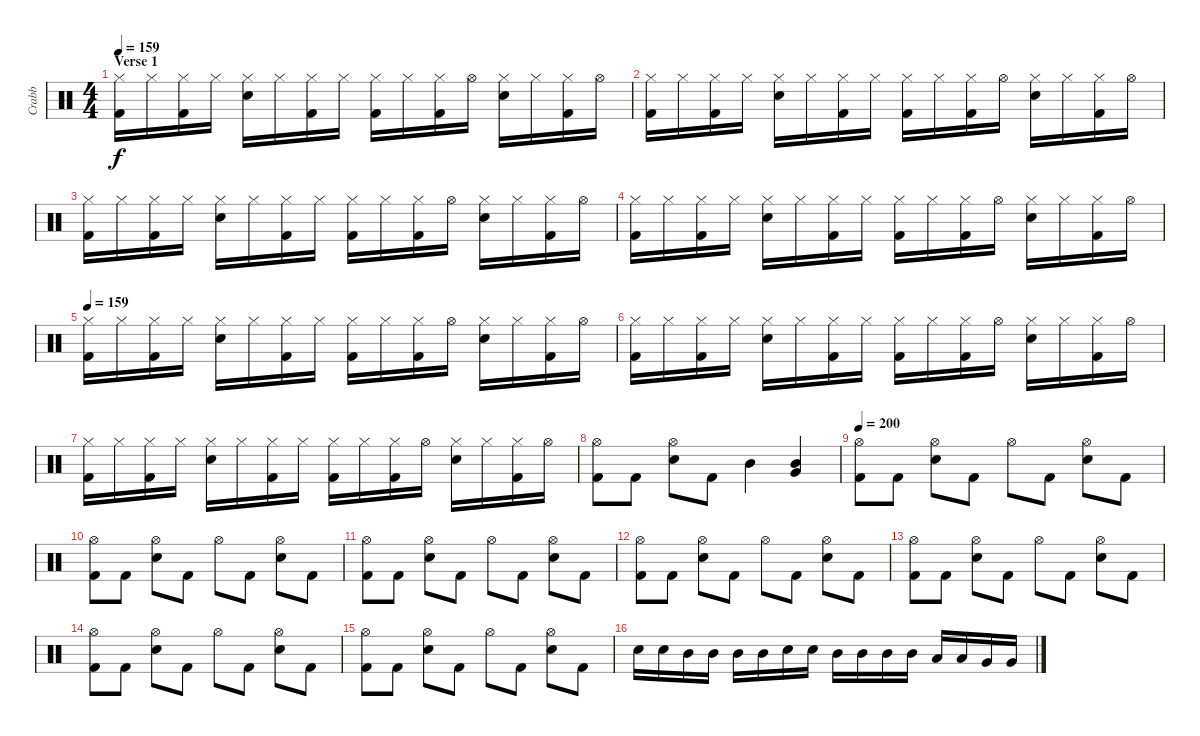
\track ("Crabb" "Crabb") {instrument percussion}
\staff {score}
\articulation defaults
\ts (4 4)
\section ("" "Verse 1")
\tempo 159
\clef neutral
\ks c
("Hi-Hat (closed)" "Kick (hit) 2").16{dy f} "Hi-Hat (closed)".16 ("Hi-Hat (closed)" "Kick (hit) 2").16 "Hi-Hat (closed)".16 ("Hi-Hat (closed)" "Electric Snare (hit)").16 "Hi-Hat (closed)".16 ("Hi-Hat (closed)" "Kick (hit) 2").16 "Hi-Hat (closed)".16 ("Hi-Hat (closed)" "Kick (hit) 2").16 "Hi-Hat (closed)".16 ("Hi-Hat (closed)" "Kick (hit) 2").16 "Hi-Hat (open)".16 ("Hi-Hat (closed)" "Electric Snare (hit)").16 "Hi-Hat (closed)".16 ("Hi-Hat (closed)" "Kick (hit) 2").16 "Hi-Hat (open)".16 |
("Hi-Hat (closed)" "Kick (hit) 2").16 "Hi-Hat (closed)".16 ("Hi-Hat (closed)" "Kick (hit) 2").16 "Hi-Hat (closed)".16 ("Hi-Hat (closed)" "Electric Snare (hit)").16 "Hi-Hat (closed)".16 ("Hi-Hat (closed)" "Kick (hit) 2").16 "Hi-Hat (closed)".16 ("Hi-Hat (closed)" "Kick (hit) 2").16 "Hi-Hat (closed)".16 ("Hi-Hat (closed)" "Kick (hit) 2").16 "Hi-Hat (open)".16 ("Hi-Hat (closed)" "Electric Snare (hit)").16 "Hi-Hat (closed)".16 ("Hi-Hat (closed)" "Kick (hit) 2").16 "Hi-Hat (open)".16 |
("Hi-Hat (closed)" "Kick (hit) 2").16 "Hi-Hat (closed)".16 ("Hi-Hat (closed)" "Kick (hit) 2").16 "Hi-Hat (closed)".16 ("Hi-Hat (closed)" "Electric Snare (hit)").16 "Hi-Hat (closed)".16 ("Hi-Hat (closed)" "Kick (hit) 2").16 "Hi-Hat (closed)".16 ("Hi-Hat (closed)" "Kick (hit) 2").16 "Hi-Hat (closed)".16 ("Hi-Hat (closed)" "Kick (hit) 2").16 "Hi-Hat (open)".16 ("Hi-Hat (closed)" "Electric Snare (hit)").16 "Hi-Hat (closed)".16 ("Hi-Hat (closed)" "Kick (hit) 2").16 "Hi-Hat (open)".16 |
("Hi-Hat (closed)" "Kick (hit) 2").16 "Hi-Hat (closed)".16 ("Hi-Hat (closed)" "Kick (hit) 2").16 "Hi-Hat (closed)".16 ("Hi-Hat (closed)" "Electric Snare (hit)").16 "Hi-Hat (closed)".16 ("Hi-Hat (closed)" "Kick (hit) 2").16 "Hi-Hat (closed)".16 ("Hi-Hat (closed)" "Kick (hit) 2").16 "Hi-Hat (closed)".16 ("Hi-Hat (closed)" "Kick (hit) 2").16 "Hi-Hat (open)".16 ("Hi-Hat (closed)" "Electric Snare (hit)").16 "Hi-Hat (closed)".16 ("Hi-Hat (closed)" "Kick (hit) 2").16 "Hi-Hat (open)".16 |
\tempo 159
("Hi-Hat (closed)" "Kick (hit) 2").16 "Hi-Hat (closed)".16 ("Hi-Hat (closed)" "Kick (hit) 2").16 "Hi-Hat (closed)".16 ("Hi-Hat (closed)" "Electric Snare (hit)").16 "Hi-Hat (closed)".16 ("Hi-Hat (closed)" "Kick (hit) 2").16 "Hi-Hat (closed)".16 ("Hi-Hat (closed)" "Kick (hit) 2").16 "Hi-Hat (closed)".16 ("Hi-Hat (closed)" "Kick (hit) 2").16 "Hi-Hat (open)".16 ("Hi-Hat (closed)" "Electric Snare (hit)").16 "Hi-Hat (closed)".16 ("Hi-Hat (closed)" "Kick (hit) 2").16 "Hi-Hat (open)".16 |
("Hi-Hat (closed)" "Kick (hit) 2").16 "Hi-Hat (closed)".16 ("Hi-Hat (closed)" "Kick (hit) 2").16 "Hi-Hat (closed)".16 ("Hi-Hat (closed)" "Electric Snare (hit)").16 "Hi-Hat (closed)".16 ("Hi-Hat (closed)" "Kick (hit) 2").16 "Hi-Hat (closed)".16 ("Hi-Hat (closed)" "Kick (hit) 2").16 "Hi-Hat (closed)".16 ("Hi-Hat (closed)" "Kick (hit) 2").16 "Hi-Hat (open)".16 ("Hi-Hat (closed)" "Electric Snare (hit)").16 "Hi-Hat (closed)".16 ("Hi-Hat (closed)" "Kick (hit) 2").16 "Hi-Hat (open)".16 |
("Hi-Hat (closed)" "Kick (hit) 2").16 "Hi-Hat (closed)".16 ("Hi-Hat (closed)" "Kick (hit) 2").16 "Hi-Hat (closed)".16 ("Hi-Hat (closed)" "Electric Snare (hit)").16 "Hi-Hat (closed)".16 ("Hi-Hat (closed)" "Kick (hit) 2").16 "Hi-Hat (closed)".16 ("Hi-Hat (closed)" "Kick (hit) 2").16 "Hi-Hat (closed)".16 ("Hi-Hat (closed)" "Kick (hit) 2").16 "Hi-Hat (open)".16 ("Hi-Hat (closed)" "Electric Snare (hit)").16 "Hi-Hat (closed)".16 ("Hi-Hat (closed)" "Kick (hit) 2").16 "Hi-Hat (open)".16 |
("Hi-Hat (open)" "Kick (hit) 2").8 "Kick (hit) 2".8 ("Hi-Hat (open)" "Electric Snare (hit)").8 "Kick (hit) 2".8 "Mid Tom (hit)".4 ("Mid Tom (hit)" "Very Low Tom (hit)").4 |
\tempo 200
("Hi-Hat (open)" "Kick (hit) 2").8 "Kick (hit) 2".8 ("Hi-Hat (open)" "Electric Snare (hit)").8 "Kick (hit) 2".8 "Hi-Hat (open)".8 "Kick (hit) 2".8 ("Hi-Hat (open)" "Electric Snare (hit)").8 "Kick (hit) 2".8 |
("Hi-Hat (open)" "Kick (hit) 2").8 "Kick (hit) 2".8 ("Hi-Hat (open)" "Electric Snare (hit)").8 "Kick (hit) 2".8 "Hi-Hat (open)".8 "Kick (hit) 2".8 ("Hi-Hat (open)" "Electric Snare (hit)").8 "Kick (hit) 2".8 |
("Hi-Hat (open)" "Kick (hit) 2").8 "Kick (hit) 2".8 ("Hi-Hat (open)" "Electric Snare (hit)").8 "Kick (hit) 2".8 "Hi-Hat (open)".8 "Kick (hit) 2".8 ("Hi-Hat (open)" "Electric Snare (hit)").8 "Kick (hit) 2".8 |
("Hi-Hat (open)" "Kick (hit) 2").8 "Kick (hit) 2".8 ("Hi-Hat (open)" "Electric Snare (hit)").8 "Kick (hit) 2".8 "Hi-Hat (open)".8 "Kick (hit) 2".8 ("Hi-Hat (open)" "Electric Snare (hit)").8 "Kick (hit) 2".8 |
("Hi-Hat (open)" "Kick (hit) 2").8 "Kick (hit) 2".8 ("Hi-Hat (open)" "Electric Snare (hit)").8 "Kick (hit) 2".8 "Hi-Hat (open)".8 "Kick (hit) 2".8 ("Hi-Hat (open)" "Electric Snare (hit)").8 "Kick (hit) 2".8 |
("Hi-Hat (open)" "Kick (hit) 2").8 "Kick (hit) 2".8 ("Hi-Hat (open)" "Electric Snare (hit)").8 "Kick (hit) 2".8 "Hi-Hat (open)".8 "Kick (hit) 2".8 ("Hi-Hat (open)" "Electric Snare (hit)").8 "Kick (hit) 2".8 |
("Hi-Hat (open)" "Kick (hit) 2").8 "Kick (hit) 2".8 ("Hi-Hat (open)" "Electric Snare (hit)").8 "Kick (hit) 2".8 "Hi-Hat (open)".8 "Kick (hit) 2".8 ("Hi-Hat (open)" "Electric Snare (hit)").8 "Kick (hit) 2".8 |
"Electric Snare (hit)".16 "Electric Snare (hit)".16 "Mid Tom (hit)".16 "Mid Tom (hit)".16 "Mid Tom (hit)".16 "Mid Tom (hit)".16 "Electric Snare (hit)".16 "Electric Snare (hit)".16 "Mid Tom (hit)".16 "Mid Tom (hit)".16 "Mid Tom (hit)".16 "Mid Tom (hit)".16 "Low Tom (hit)".16 "Low Tom (hit)".16 "Very Low Tom (hit)".16 "Very Low Tom (hit)".16
